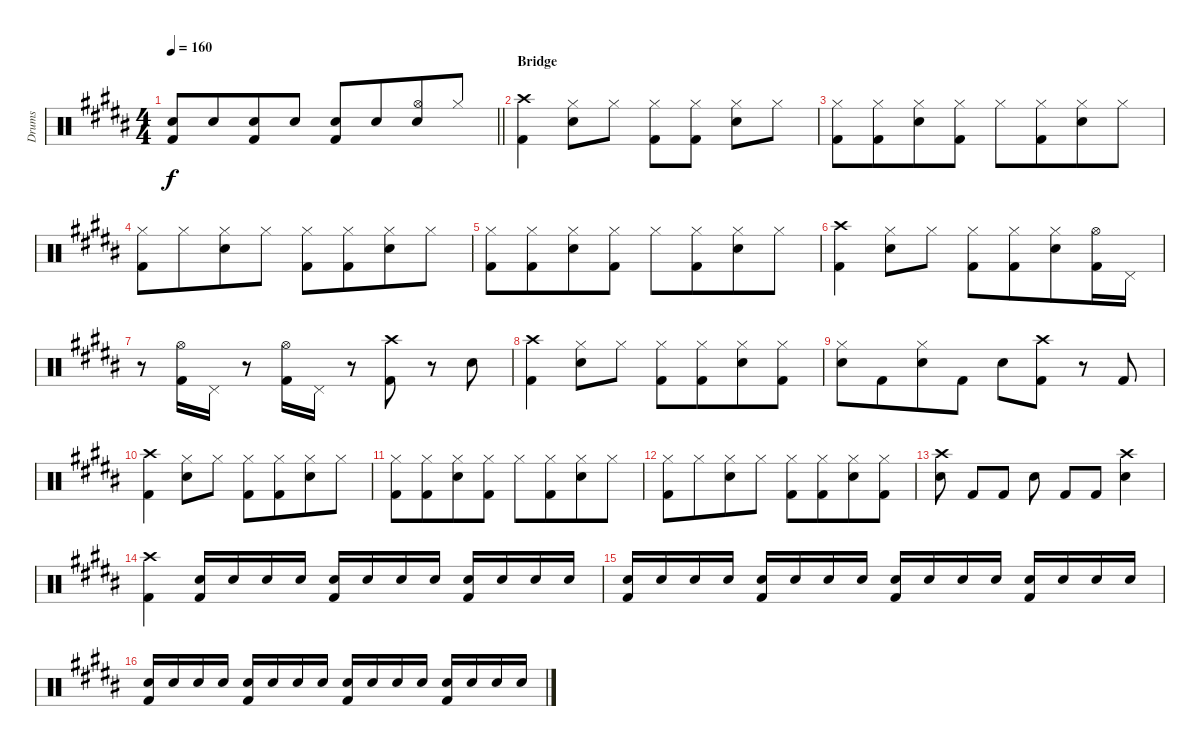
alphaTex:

\track ("Drums" "Drums") {instrument percussion}
\staff {score}
\articulation defaults
\ts (4 4)
\tempo 160
\clef neutral
\barLineRight lightlight
\ks b
("Snare (hit) 2" "Kick (hit) 2").8{dy f} "Snare (hit) 2".8{beam merge} ("Snare (hit) 2" "Kick (hit) 2").8 "Snare (hit) 2".8 ("Snare (hit) 2" "Kick (hit) 2").8{beam Up} "Snare (hit) 2".8{beam Up beam merge} ("Hi-Hat (open)" "Snare (hit) 2").8{beam Up} "Hi-Hat (closed)".8{beam Up} |
\section ("" "Bridge")
("Kick (hit) 2" "Crash high (hit)").4 ("Hi-Hat (closed)" "Snare (hit) 2").8 "Hi-Hat (closed)".8 ("Hi-Hat (closed)" "Kick (hit) 2").8 ("Hi-Hat (closed)" "Kick (hit) 2").8 ("Hi-Hat (closed)" "Snare (hit) 2").8 "Hi-Hat (closed)".8 |
("Hi-Hat (closed)" "Kick (hit) 2").8 ("Hi-Hat (closed)" "Kick (hit) 2").8{beam merge} ("Hi-Hat (closed)" "Snare (hit) 2").8 ("Hi-Hat (closed)" "Kick (hit) 2").8 "Hi-Hat (closed)".8 ("Hi-Hat (closed)" "Kick (hit) 2").8{beam merge} ("Hi-Hat (closed)" "Snare (hit) 2").8 "Hi-Hat (closed)".8 |
("Hi-Hat (closed)" "Kick (hit) 2").8 "Hi-Hat (closed)".8{beam merge} ("Hi-Hat (closed)" "Snare (hit) 2").8 "Hi-Hat (closed)".8 ("Hi-Hat (closed)" "Kick (hit) 2").8 ("Hi-Hat (closed)" "Kick (hit) 2").8{beam merge} ("Hi-Hat (closed)" "Snare (hit) 2").8 "Hi-Hat (closed)".8 |
("Hi-Hat (closed)" "Kick (hit) 2").8 ("Hi-Hat (closed)" "Kick (hit) 2").8{beam merge} ("Hi-Hat (closed)" "Snare (hit) 2").8 ("Hi-Hat (closed)" "Kick (hit) 2").8 "Hi-Hat (closed)".8 ("Hi-Hat (closed)" "Kick (hit) 2").8{beam merge} ("Hi-Hat (closed)" "Snare (hit) 2").8 "Hi-Hat (closed)".8 |
("Kick (hit) 2" "Crash high (hit)").4 ("Hi-Hat (closed)" "Snare (hit) 2").8 "Hi-Hat (closed)".8 ("Hi-Hat (closed)" "Kick (hit) 2").8 ("Hi-Hat (closed)" "Kick (hit) 2").8{beam merge} ("Hi-Hat (closed)" "Snare (hit) 2").8 ("Hi-Hat (open)" "Kick (hit) 2").16 "Pedal Hi-Hat (hit)".16 |
r.8 ("Hi-Hat (open)" "Kick (hit) 2").16 "Pedal Hi-Hat (hit)".16 r.8 ("Hi-Hat (open)" "Kick (hit) 2").16 "Pedal Hi-Hat (hit)".16 r.8 ("Kick (hit) 2" "Crash high (hit)").8 r.8 "Snare (hit) 2".8 |
("Kick (hit) 2" "Crash high (hit)").4 ("Hi-Hat (closed)" "Snare (hit) 2").8 "Hi-Hat (closed)".8 ("Hi-Hat (closed)" "Kick (hit) 2").8 ("Hi-Hat (closed)" "Kick (hit) 2").8{beam merge} ("Hi-Hat (closed)" "Snare (hit) 2").8 ("Hi-Hat (closed)" "Kick (hit) 2").8 |
("Hi-Hat (closed)" "Snare (hit) 2").8 "Kick (hit) 2".8{beam merge} ("Hi-Hat (closed)" "Snare (hit) 2").8 "Kick (hit) 2".8 "Snare (hit) 2".8 ("Kick (hit) 2" "Crash high (hit)").8 r.8 "Kick (hit) 2".8 |
("Kick (hit) 2" "Crash high (hit)").4 ("Hi-Hat (closed)" "Snare (hit) 2").8 "Hi-Hat (closed)".8 ("Hi-Hat (closed)" "Kick (hit) 2").8 ("Hi-Hat (closed)" "Kick (hit) 2").8{beam merge} ("Hi-Hat (closed)" "Snare (hit) 2").8 "Hi-Hat (closed)".8 |
("Hi-Hat (closed)" "Kick (hit) 2").8 ("Hi-Hat (closed)" "Kick (hit) 2").8{beam merge} ("Hi-Hat (closed)" "Snare (hit) 2").8 ("Hi-Hat (closed)" "Kick (hit) 2").8 "Hi-Hat (closed)".8 ("Hi-Hat (closed)" "Kick (hit) 2").8{beam merge} ("Hi-Hat (closed)" "Snare (hit) 2").8 "Hi-Hat (closed)".8 |
("Hi-Hat (closed)" "Kick (hit) 2").8 "Hi-Hat (closed)".8{beam merge} ("Hi-Hat (closed)" "Snare (hit) 2").8 "Hi-Hat (closed)".8 ("Hi-Hat (closed)" "Kick (hit) 2").8 ("Hi-Hat (closed)" "Kick (hit) 2").8{beam merge} ("Hi-Hat (closed)" "Snare (hit) 2").8 ("Hi-Hat (closed)" "Kick (hit) 2").8 |
("Snare (hit) 2" "Crash high (hit)").8{beam split} "Kick (hit) 2".8{beam merge} "Kick (hit) 2".8{beam split} "Snare (hit) 2".8 "Kick (hit) 2".8{beam merge} "Kick (hit) 2".8 ("Snare (hit) 2" "Crash high (hit)").4 |
("Kick (hit) 2" "Crash high (hit)").4 ("Snare (hit) 2" "Kick (hit) 2").16 "Snare (hit) 2".16 "Snare (hit) 2".16 "Snare (hit) 2".16 ("Snare (hit) 2" "Kick (hit) 2").16 "Snare (hit) 2".16 "Snare (hit) 2".16 "Snare (hit) 2".16 ("Snare (hit) 2" "Kick (hit) 2").16 "Snare (hit) 2".16 "Snare (hit) 2".16 "Snare (hit) 2".16 |
("Snare (hit) 2" "Kick (hit) 2").16 "Snare (hit) 2".16 "Snare (hit) 2".16 "Snare (hit) 2".16 ("Snare (hit) 2" "Kick (hit) 2").16 "Snare (hit) 2".16 "Snare (hit) 2".16 "Snare (hit) 2".16 ("Snare (hit) 2" "Kick (hit) 2").16 "Snare (hit) 2".16 "Snare (hit) 2".16 "Snare (hit) 2".16 ("Snare (hit) 2" "Kick (hit) 2").16 "Snare (hit) 2".16 "Snare (hit) 2".16 "Snare (hit) 2".16 |
("Snare (hit) 2" "Kick (hit) 2").16 "Snare (hit) 2".16 "Snare (hit) 2".16 "Snare (hit) 2".16 ("Snare (hit) 2" "Kick (hit) 2").16 "Snare (hit) 2".16 "Snare (hit) 2".16 "Snare (hit) 2".16 ("Snare (hit) 2" "Kick (hit) 2").16 "Snare (hit) 2".16 "Snare (hit) 2".16 "Snare (hit) 2".16 ("Snare (hit) 2" "Kick (hit) 2").16 "Snare (hit) 2".16 "Snare (hit) 2".16 "Snare (hit) 2".16
